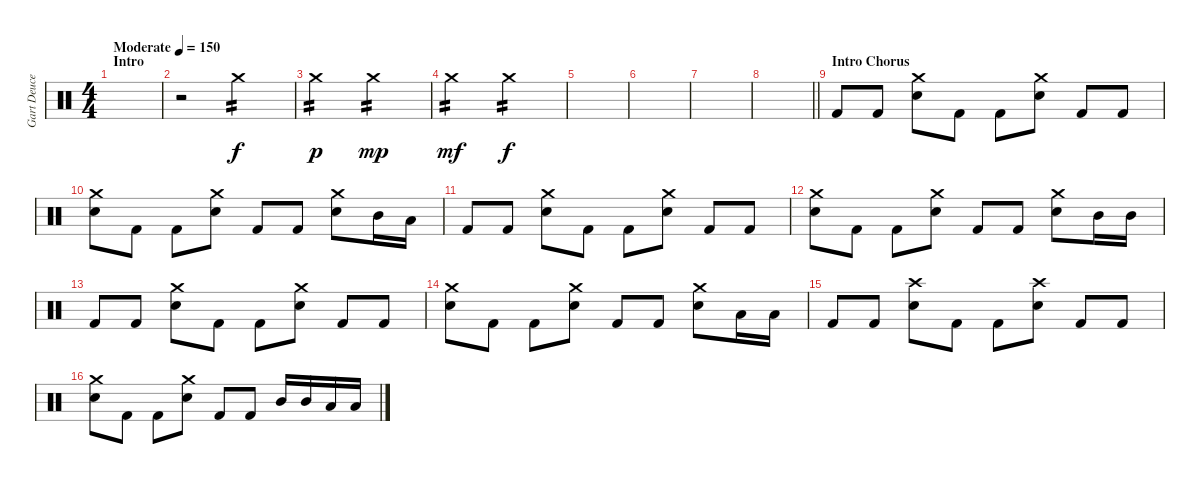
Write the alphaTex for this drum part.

\track ("Gart Deuce" "Gart Deuce") {instrument percussion}
\staff {score}
\articulation defaults
\ts (4 4)
\section ("" "Intro")
\tempo (150 "Moderate")
\clef neutral
\ks c
|
r.2 "Crash medium (hit)".2{tp 2} |
"Crash medium (hit)".2{tp 2 dy p} "Crash medium (hit)".2{tp 2 dy mp} |
"Crash medium (hit)".2{tp 2 dy mf} "Crash medium (hit)".2{tp 2 dy f} |
|
|
|
\barLineRight lightlight
|
\section ("" "Intro Chorus")
"Kick (hit) 2".8 "Kick (hit) 2".8 ("Crash medium (hit)" "Snare (hit) 2").8 "Kick (hit) 2".8 "Kick (hit) 2".8 ("Crash medium (hit)" "Snare (hit) 2").8 "Kick (hit) 2".8 "Kick (hit) 2".8 |
("Crash medium (hit)" "Snare (hit) 2").8 "Kick (hit) 2".8 "Kick (hit) 2".8 ("Crash medium (hit)" "Snare (hit) 2").8 "Kick (hit) 2".8 "Kick (hit) 2".8 ("Crash medium (hit)" "Snare (hit) 2").8 "Mid Tom (hit)".16 "Low Tom (hit)".16 |
"Kick (hit) 2".8 "Kick (hit) 2".8 ("Crash medium (hit)" "Snare (hit) 2").8 "Kick (hit) 2".8 "Kick (hit) 2".8 ("Crash medium (hit)" "Snare (hit) 2").8 "Kick (hit) 2".8 "Kick (hit) 2".8 |
("Crash medium (hit)" "Snare (hit) 2").8 "Kick (hit) 2".8 "Kick (hit) 2".8 ("Crash medium (hit)" "Snare (hit) 2").8 "Kick (hit) 2".8 "Kick (hit) 2".8 ("Crash medium (hit)" "Snare (hit) 2").8 "Mid Tom (hit)".16 "Mid Tom (hit)".16 |
"Kick (hit) 2".8 "Kick (hit) 2".8 ("Crash medium (hit)" "Snare (hit) 2").8 "Kick (hit) 2".8 "Kick (hit) 2".8 ("Crash medium (hit)" "Snare (hit) 2").8 "Kick (hit) 2".8 "Kick (hit) 2".8 |
("Crash medium (hit)" "Snare (hit) 2").8 "Kick (hit) 2".8 "Kick (hit) 2".8 ("Crash medium (hit)" "Snare (hit) 2").8 "Kick (hit) 2".8 "Kick (hit) 2".8 ("Crash medium (hit)" "Snare (hit) 2").8 "Low Tom (hit)".16 "Low Tom (hit)".16 |
"Kick (hit) 2".8 "Kick (hit) 2".8 ("Crash high (hit)" "Snare (hit) 2").8 "Kick (hit) 2".8 "Kick (hit) 2".8 ("Crash high (hit)" "Snare (hit) 2").8 "Kick (hit) 2".8 "Kick (hit) 2".8 |
("Crash medium (hit)" "Snare (hit) 2").8 "Kick (hit) 2".8 "Kick (hit) 2".8 ("Crash medium (hit)" "Snare (hit) 2").8 "Kick (hit) 2".8 "Kick (hit) 2".8 "Mid Tom (hit)".16 "Mid Tom (hit)".16 "Low Tom (hit)".16 "Low Tom (hit)".16
